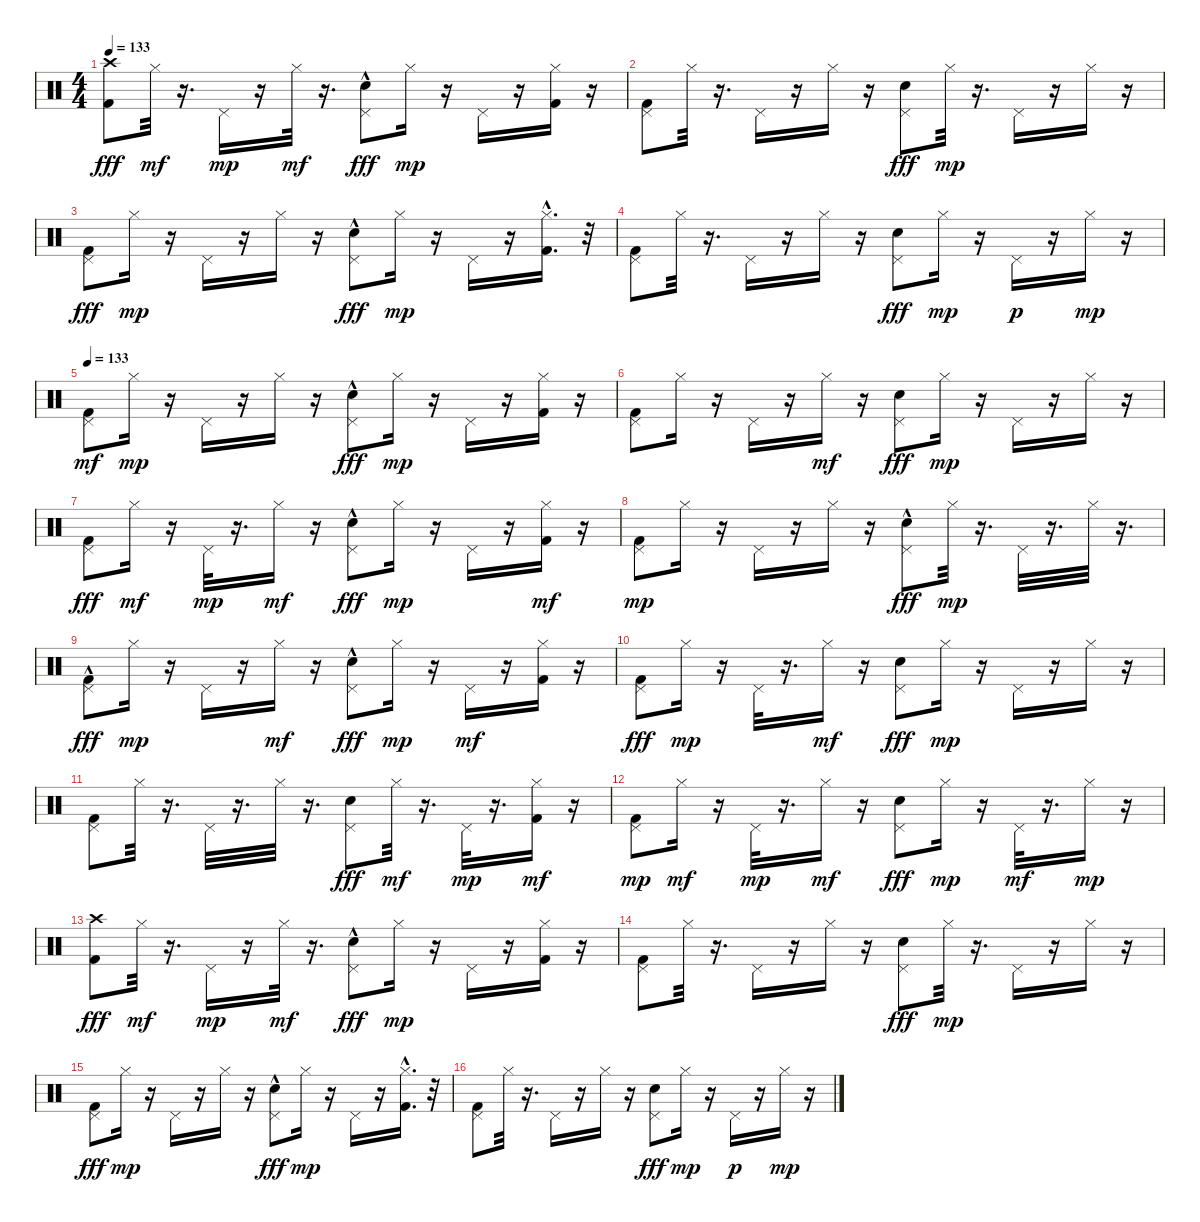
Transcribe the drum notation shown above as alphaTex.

\track "" {instrument percussion}
\staff {score}
\articulation defaults
\ts (4 4)
\tempo 133
\clef neutral
\ks c
("Crash high (hit)" "Kick (hit) 2").8{dy fff} "Hi-Hat (closed)".32{dy mf} r.16{d} "Pedal Hi-Hat (hit)".16{dy mp} r.16 "Hi-Hat (closed)".32{dy mf} r.16{d} ("Pedal Hi-Hat (hit)" "Snare (hit) 2"{hac}).8{dy fff} "Hi-Hat (closed)".16{dy mp} r.16 "Pedal Hi-Hat (hit)".16 r.16 ("Kick (hit) 2" "Hi-Hat (closed)").16 r.16 |
("Kick (hit) 2" "Pedal Hi-Hat (hit)").8 "Hi-Hat (closed)".32 r.16{d} "Pedal Hi-Hat (hit)".16 r.16 "Hi-Hat (closed)".16 r.16 ("Pedal Hi-Hat (hit)" "Snare (hit) 2").8{dy fff} "Hi-Hat (closed)".32{dy mp} r.16{d} "Pedal Hi-Hat (hit)".16 r.16 "Hi-Hat (closed)".16 r.16 |
("Pedal Hi-Hat (hit)" "Kick (hit) 2").8{dy fff} "Hi-Hat (closed)".16{dy mp} r.16 "Pedal Hi-Hat (hit)".16 r.16 "Hi-Hat (closed)".16 r.16 ("Pedal Hi-Hat (hit)" "Snare (hit) 2"{hac}).8{dy fff} "Hi-Hat (closed)".16{dy mp} r.16 "Pedal Hi-Hat (hit)".16 r.16 ("Kick (hit) 2"{hac} "Hi-Hat (closed)").16{d} r.32 |
("Kick (hit) 2" "Pedal Hi-Hat (hit)").8 "Hi-Hat (closed)".32 r.16{d} "Pedal Hi-Hat (hit)".16 r.16 "Hi-Hat (closed)".16 r.16 ("Pedal Hi-Hat (hit)" "Snare (hit) 2").8{dy fff} "Hi-Hat (closed)".16{dy mp} r.16 "Pedal Hi-Hat (hit)".16{dy p} r.16 "Hi-Hat (closed)".16{dy mp} r.16 |
\tempo 133
("Kick (hit) 2" "Pedal Hi-Hat (hit)").8{dy mf} "Hi-Hat (closed)".16{dy mp} r.16 "Pedal Hi-Hat (hit)".16 r.16 "Hi-Hat (closed)".16 r.16 ("Pedal Hi-Hat (hit)" "Snare (hit) 2"{hac}).8{dy fff} "Hi-Hat (closed)".16{dy mp} r.16 "Pedal Hi-Hat (hit)".16 r.16 ("Kick (hit) 2" "Hi-Hat (closed)").16 r.16 |
("Kick (hit) 2" "Pedal Hi-Hat (hit)").8 "Hi-Hat (closed)".16 r.16 "Pedal Hi-Hat (hit)".16 r.16 "Hi-Hat (closed)".16{dy mf} r.16 ("Pedal Hi-Hat (hit)" "Snare (hit) 2").8{dy fff} "Hi-Hat (closed)".16{dy mp} r.16 "Pedal Hi-Hat (hit)".16 r.16 "Hi-Hat (closed)".16 r.16 |
("Pedal Hi-Hat (hit)" "Kick (hit) 2").8{dy fff} "Hi-Hat (closed)".16{dy mf} r.16 "Pedal Hi-Hat (hit)".32{dy mp} r.16{d} "Hi-Hat (closed)".16{dy mf} r.16 ("Pedal Hi-Hat (hit)" "Snare (hit) 2"{hac}).8{dy fff} "Hi-Hat (closed)".16{dy mp} r.16 "Pedal Hi-Hat (hit)".16 r.16 ("Kick (hit) 2" "Hi-Hat (closed)").16{dy mf} r.16 |
("Kick (hit) 2" "Pedal Hi-Hat (hit)").8{dy mp} "Hi-Hat (closed)".16 r.16 "Pedal Hi-Hat (hit)".16 r.16 "Hi-Hat (closed)".16 r.16 ("Pedal Hi-Hat (hit)" "Snare (hit) 2"{hac}).8{dy fff} "Hi-Hat (closed)".32{dy mp} r.16{d} "Pedal Hi-Hat (hit)".32 r.16{d} "Hi-Hat (closed)".32 r.16{d} |
("Pedal Hi-Hat (hit)" "Kick (hit) 2"{hac}).8{dy fff} "Hi-Hat (closed)".16{dy mp} r.16 "Pedal Hi-Hat (hit)".16 r.16 "Hi-Hat (closed)".16{dy mf} r.16 ("Pedal Hi-Hat (hit)" "Snare (hit) 2"{hac}).8{dy fff} "Hi-Hat (closed)".16{dy mp} r.16 "Pedal Hi-Hat (hit)".16{dy mf} r.16 ("Kick (hit) 2" "Hi-Hat (closed)").16 r.16 |
("Pedal Hi-Hat (hit)" "Kick (hit) 2").8{dy fff} "Hi-Hat (closed)".16{dy mp} r.16 "Pedal Hi-Hat (hit)".32 r.16{d} "Hi-Hat (closed)".16{dy mf} r.16 ("Pedal Hi-Hat (hit)" "Snare (hit) 2").8{dy fff} "Hi-Hat (closed)".16{dy mp} r.16 "Pedal Hi-Hat (hit)".16 r.16 "Hi-Hat (closed)".16 r.16 |
("Kick (hit) 2" "Pedal Hi-Hat (hit)").8 "Hi-Hat (closed)".32 r.16{d} "Pedal Hi-Hat (hit)".32 r.16{d} "Hi-Hat (closed)".32 r.16{d} ("Pedal Hi-Hat (hit)" "Snare (hit) 2").8{dy fff} "Hi-Hat (closed)".32{dy mf} r.16{d} "Pedal Hi-Hat (hit)".32{dy mp} r.16{d} ("Kick (hit) 2" "Hi-Hat (closed)").16{dy mf} r.16 |
("Kick (hit) 2" "Pedal Hi-Hat (hit)").8{dy mp} "Hi-Hat (closed)".16{dy mf} r.16 "Pedal Hi-Hat (hit)".32{dy mp} r.16{d} "Hi-Hat (closed)".16{dy mf} r.16 ("Pedal Hi-Hat (hit)" "Snare (hit) 2").8{dy fff} "Hi-Hat (closed)".16{dy mp} r.16 "Pedal Hi-Hat (hit)".32{dy mf} r.16{d} "Hi-Hat (closed)".16{dy mp} r.16 |
("Crash high (hit)" "Kick (hit) 2").8{dy fff} "Hi-Hat (closed)".32{dy mf} r.16{d} "Pedal Hi-Hat (hit)".16{dy mp} r.16 "Hi-Hat (closed)".32{dy mf} r.16{d} ("Pedal Hi-Hat (hit)" "Snare (hit) 2"{hac}).8{dy fff} "Hi-Hat (closed)".16{dy mp} r.16 "Pedal Hi-Hat (hit)".16 r.16 ("Kick (hit) 2" "Hi-Hat (closed)").16 r.16 |
("Kick (hit) 2" "Pedal Hi-Hat (hit)").8 "Hi-Hat (closed)".32 r.16{d} "Pedal Hi-Hat (hit)".16 r.16 "Hi-Hat (closed)".16 r.16 ("Pedal Hi-Hat (hit)" "Snare (hit) 2").8{dy fff} "Hi-Hat (closed)".32{dy mp} r.16{d} "Pedal Hi-Hat (hit)".16 r.16 "Hi-Hat (closed)".16 r.16 |
("Pedal Hi-Hat (hit)" "Kick (hit) 2").8{dy fff} "Hi-Hat (closed)".16{dy mp} r.16 "Pedal Hi-Hat (hit)".16 r.16 "Hi-Hat (closed)".16 r.16 ("Pedal Hi-Hat (hit)" "Snare (hit) 2"{hac}).8{dy fff} "Hi-Hat (closed)".16{dy mp} r.16 "Pedal Hi-Hat (hit)".16 r.16 ("Kick (hit) 2"{hac} "Hi-Hat (closed)").16{d} r.32 |
("Kick (hit) 2" "Pedal Hi-Hat (hit)").8 "Hi-Hat (closed)".32 r.16{d} "Pedal Hi-Hat (hit)".16 r.16 "Hi-Hat (closed)".16 r.16 ("Pedal Hi-Hat (hit)" "Snare (hit) 2").8{dy fff} "Hi-Hat (closed)".16{dy mp} r.16 "Pedal Hi-Hat (hit)".16{dy p} r.16 "Hi-Hat (closed)".16{dy mp} r.16
